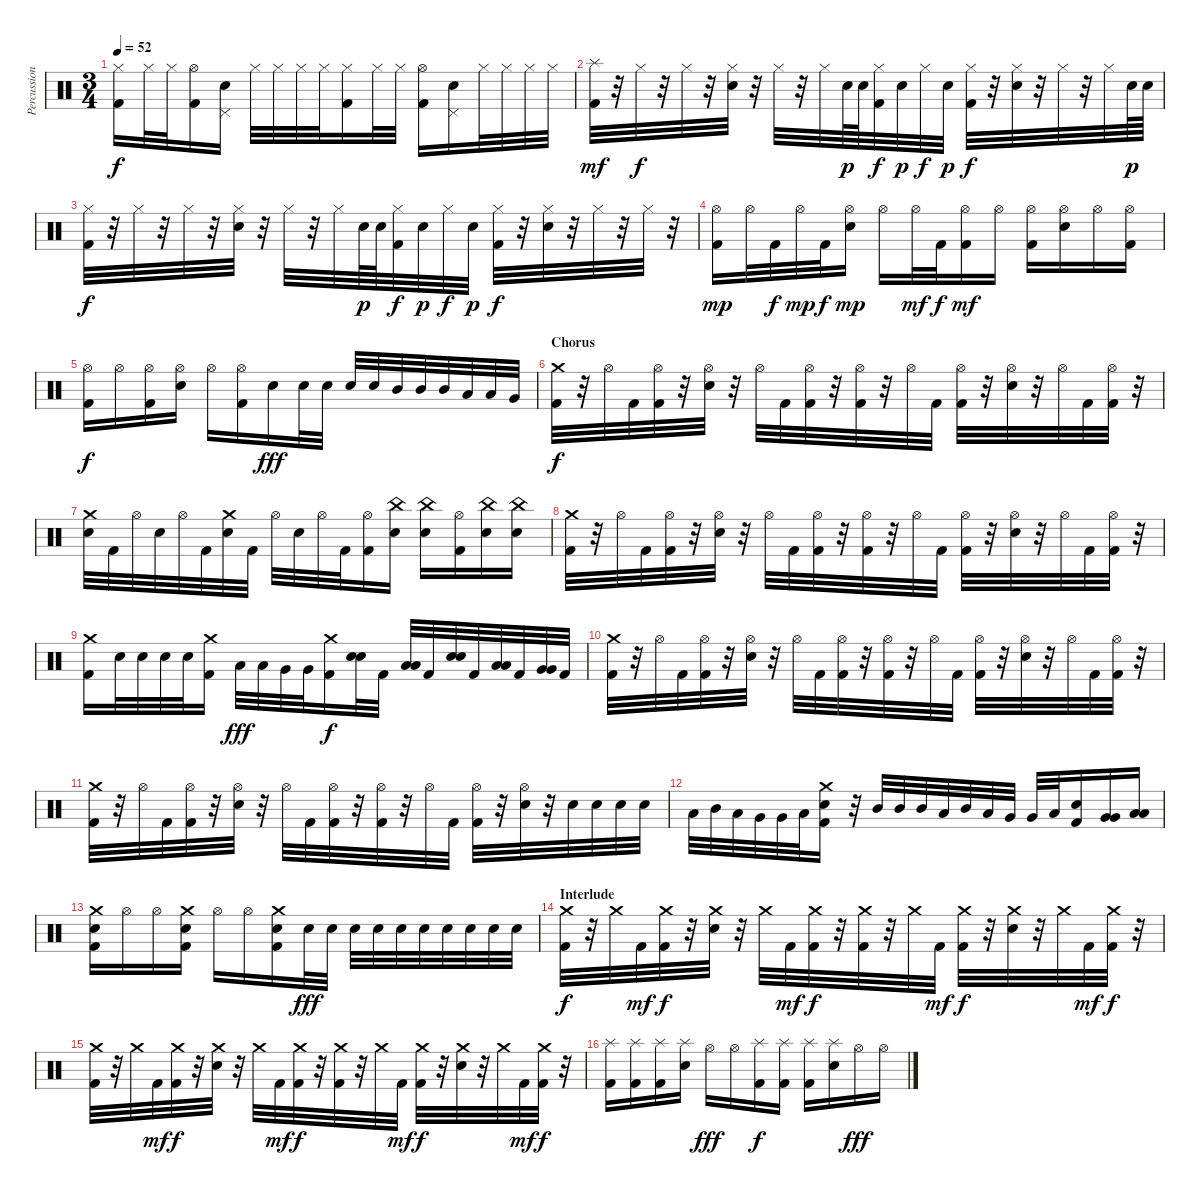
\track ("Percussion" "Percussion") {instrument percussion}
\staff {score}
\articulation defaults
\ts (3 4)
\tempo 52
\clef neutral
\ks c
("Hi-Hat (closed)" "Kick (hit) 2").16{dy f} "Hi-Hat (closed)".32 "Hi-Hat (closed)".32 ("Hi-Hat (open)" "Kick (hit) 2").16 ("Pedal Hi-Hat (hit)" "Snare (hit) 2").16 "Hi-Hat (closed)".32 "Hi-Hat (closed)".32 "Hi-Hat (closed)".32 "Hi-Hat (closed)".32 ("Hi-Hat (closed)" "Kick (hit) 2").16 "Hi-Hat (closed)".32 "Hi-Hat (closed)".32 ("Hi-Hat (open)" "Kick (hit) 2").16 ("Pedal Hi-Hat (hit)" "Snare (hit) 2").16 "Hi-Hat (closed)".32 "Hi-Hat (closed)".32 "Hi-Hat (closed)".32 "Hi-Hat (closed)".32 |
("Splash (hit)" "Kick (hit) 2").32{dy mf} r.32 "Hi-Hat (closed)".32{dy f} r.32 "Hi-Hat (closed)".32 r.32 ("Hi-Hat (closed)" "Snare (hit) 2").32 r.32 "Hi-Hat (closed)".32 r.32 "Hi-Hat (closed)".32 "Snare (hit) 2".64{dy p} "Snare (hit) 2".64 ("Hi-Hat (closed)" "Kick (hit) 2").32{dy f} "Snare (hit) 2".32{dy p} "Hi-Hat (closed)".32{dy f} "Snare (hit) 2".32{dy p} ("Hi-Hat (closed)" "Kick (hit) 2").32{dy f} r.32 ("Hi-Hat (closed)" "Snare (hit) 2").32 r.32 "Hi-Hat (closed)".32 r.32 "Hi-Hat (closed)".32 "Snare (hit) 2".64{dy p} "Snare (hit) 2".64 |
("Hi-Hat (closed)" "Kick (hit) 2").32{dy f} r.32 "Hi-Hat (closed)".32 r.32 "Hi-Hat (closed)".32 r.32 ("Hi-Hat (closed)" "Snare (hit) 2").32 r.32 "Hi-Hat (closed)".32 r.32 "Hi-Hat (closed)".32 "Snare (hit) 2".64{dy p} "Snare (hit) 2".64 ("Hi-Hat (closed)" "Kick (hit) 2").32{dy f} "Snare (hit) 2".32{dy p} "Hi-Hat (closed)".32{dy f} "Snare (hit) 2".32{dy p} ("Hi-Hat (closed)" "Kick (hit) 2").32{dy f} r.32 ("Hi-Hat (closed)" "Snare (hit) 2").32 r.32 "Hi-Hat (closed)".32 r.32 "Hi-Hat (closed)".32 r.32 |
("Hi-Hat (open)" "Kick (hit) 2").16{dy mp} "Hi-Hat (open)".32 "Kick (hit) 2".32{dy f} "Hi-Hat (open)".32{dy mp} "Kick (hit) 2".32{dy f} ("Hi-Hat (open)" "Snare (hit) 2").16{dy mp} "Hi-Hat (open)".16 "Hi-Hat (open)".32{dy mf} "Kick (hit) 2".32{dy f} ("Hi-Hat (open)" "Kick (hit) 2").16{dy mf} "Hi-Hat (open)".16 ("Hi-Hat (open)" "Kick (hit) 2").16 ("Hi-Hat (open)" "Snare (hit) 2").16 "Hi-Hat (open)".16 ("Hi-Hat (open)" "Kick (hit) 2").16 |
("Hi-Hat (open)" "Kick (hit) 2").16{dy f} "Hi-Hat (open)".16 ("Hi-Hat (open)" "Kick (hit) 2").16 ("Hi-Hat (open)" "Snare (hit) 2").16 "Hi-Hat (open)".16 ("Hi-Hat (open)" "Kick (hit) 2").16 "Snare (hit) 2".16{dy fff} "Snare (hit) 2".32 "Snare (hit) 2".32 "Snare (hit) 2".32 "Snare (hit) 2".32 "Mid Tom (hit)".32 "Mid Tom (hit)".32 "Mid Tom (hit)".32 "Low Tom (hit)".32 "Low Tom (hit)".32 "Very Low Tom (hit)".32 |
\section ("" "Chorus")
("Crash medium (hit)" "Kick (hit) 2").32{dy f} r.32 "Hi-Hat (open)".32 "Kick (hit) 2".32 ("Hi-Hat (open)" "Kick (hit) 2").32 r.32 ("Hi-Hat (open)" "Snare (hit) 2").32 r.32 "Hi-Hat (open)".32 "Kick (hit) 2".32 ("Hi-Hat (open)" "Kick (hit) 2").32 r.32 ("Hi-Hat (open)" "Kick (hit) 2").32 r.32 "Hi-Hat (open)".32 "Kick (hit) 2".32 ("Hi-Hat (open)" "Kick (hit) 2").32 r.32 ("Hi-Hat (open)" "Snare (hit) 2").32 r.32 "Hi-Hat (open)".32 "Kick (hit) 2".32 ("Hi-Hat (open)" "Kick (hit) 2").32 r.32 |
("Crash medium (hit)" "Snare (hit) 2").32 "Kick (hit) 2".32 "Hi-Hat (open)".32 "Snare (hit) 2".32 "Hi-Hat (open)".32 "Kick (hit) 2".32 ("Crash medium (hit)" "Snare (hit) 2").32 "Kick (hit) 2".32 "Hi-Hat (open)".32 "Snare (hit) 2".32 "Hi-Hat (open)".32 "Kick (hit) 2".32 ("Hi-Hat (open)" "Kick (hit) 2").16 ("China (hit)" "Snare (hit) 2").16 ("China (hit)" "Snare (hit) 2").16 ("Hi-Hat (open)" "Kick (hit) 2").16 ("China (hit)" "Snare (hit) 2").16 ("China (hit)" "Snare (hit) 2").16 |
("Crash medium (hit)" "Kick (hit) 2").32 r.32 "Hi-Hat (open)".32 "Kick (hit) 2".32 ("Hi-Hat (open)" "Kick (hit) 2").32 r.32 ("Hi-Hat (open)" "Snare (hit) 2").32 r.32 "Hi-Hat (open)".32 "Kick (hit) 2".32 ("Hi-Hat (open)" "Kick (hit) 2").32 r.32 ("Hi-Hat (open)" "Kick (hit) 2").32 r.32 "Hi-Hat (open)".32 "Kick (hit) 2".32 ("Hi-Hat (open)" "Kick (hit) 2").32 r.32 ("Hi-Hat (open)" "Snare (hit) 2").32 r.32 "Hi-Hat (open)".32 "Kick (hit) 2".32 ("Hi-Hat (open)" "Kick (hit) 2").32 r.32 |
("Crash medium (hit)" "Kick (hit) 2").16 "Snare (hit) 2".32 "Snare (hit) 2".32 "Snare (hit) 2".32 "Snare (hit) 2".32 ("Crash medium (hit)" "Kick (hit) 2").16 "Low Tom (hit)".32{dy fff} "Low Tom (hit)".32 "Very Low Tom (hit)".32 "Very Low Tom (hit)".32 ("Crash medium (hit)" "Kick (hit) 2").16{dy f} ("Snare (hit) 2" "Snare (hit) 2").32 "Kick (hit) 2".32 ("Low Tom (hit)" "Low Tom (hit)").32 "Kick (hit) 2".32 ("Snare (hit) 2" "Snare (hit) 2").32 "Kick (hit) 2".32 ("Low Tom (hit)" "Low Tom (hit)").32 "Kick (hit) 2".32 ("Very Low Tom (hit)" "Very Low Tom (hit)").32 "Kick (hit) 2".32 |
("Crash medium (hit)" "Kick (hit) 2").32 r.32 "Hi-Hat (open)".32 "Kick (hit) 2".32 ("Hi-Hat (open)" "Kick (hit) 2").32 r.32 ("Hi-Hat (open)" "Snare (hit) 2").32 r.32 "Hi-Hat (open)".32 "Kick (hit) 2".32 ("Hi-Hat (open)" "Kick (hit) 2").32 r.32 ("Hi-Hat (open)" "Kick (hit) 2").32 r.32 "Hi-Hat (open)".32 "Kick (hit) 2".32 ("Hi-Hat (open)" "Kick (hit) 2").32 r.32 ("Hi-Hat (open)" "Snare (hit) 2").32 r.32 "Hi-Hat (open)".32 "Kick (hit) 2".32 ("Hi-Hat (open)" "Kick (hit) 2").32 r.32 |
("Crash medium (hit)" "Kick (hit) 2").32 r.32 "Hi-Hat (open)".32 "Kick (hit) 2".32 ("Hi-Hat (open)" "Kick (hit) 2").32 r.32 ("Hi-Hat (open)" "Snare (hit) 2").32 r.32 "Hi-Hat (open)".32 "Kick (hit) 2".32 ("Hi-Hat (open)" "Kick (hit) 2").32 r.32 ("Hi-Hat (open)" "Kick (hit) 2").32 r.32 "Hi-Hat (open)".32 "Kick (hit) 2".32 ("Hi-Hat (open)" "Kick (hit) 2").32 r.32 ("Hi-Hat (open)" "Snare (hit) 2").32 r.32 "Snare (hit) 2".32 "Snare (hit) 2".32 "Snare (hit) 2".32 "Snare (hit) 2".32 |
"Low Tom (hit)".32 "Mid Tom (hit)".32 "Low Tom (hit)".32 "Very Low Tom (hit)".32 "Very Low Tom (hit)".32 "Low Floor Tom (hit)".32 ("Crash medium (hit)" "Snare (hit) 2" "Kick (hit) 2").16 r.32 "Mid Tom (hit)".32 "Mid Tom (hit)".32 "Mid Tom (hit)".32 "Low Tom (hit)".32 "Mid Tom (hit)".32 "Low Tom (hit)".32 "Very Low Tom (hit)".32 "Very Low Tom (hit)".32 "Low Floor Tom (hit)".32 ("Snare (hit) 2" "Kick (hit) 2").16 ("Very Low Tom (hit)" "Very Low Tom (hit)").16 ("Low Tom (hit)" "Low Tom (hit)").16 |
("Crash medium (hit)" "Snare (hit) 2" "Kick (hit) 2").16 "Hi-Hat (open)".16 "Hi-Hat (open)".16 ("Crash medium (hit)" "Snare (hit) 2" "Kick (hit) 2").16 "Hi-Hat (open)".16 "Hi-Hat (open)".16 ("Crash medium (hit)" "Snare (hit) 2" "Kick (hit) 2").16 "Snare (hit) 2".32{dy fff} "Snare (hit) 2".32 "Snare (hit) 2".32 "Snare (hit) 2".32 "Snare (hit) 2".32 "Snare (hit) 2".32 "Snare (hit) 2".32 "Snare (hit) 2".32 "Snare (hit) 2".32 "Snare (hit) 2".32 |
\section ("" "Interlude")
("Crash medium (hit)" "Kick (hit) 2").32{dy f} r.32 "Crash medium (hit)".32 "Kick (hit) 2".32{dy mf} ("Crash medium (hit)" "Kick (hit) 2").32{dy f} r.32 ("Crash medium (hit)" "Snare (hit) 2").32 r.32 "Crash medium (hit)".32 "Kick (hit) 2".32{dy mf} ("Crash medium (hit)" "Kick (hit) 2").32{dy f} r.32 ("Crash medium (hit)" "Kick (hit) 2").32 r.32 "Crash medium (hit)".32 "Kick (hit) 2".32{dy mf} ("Crash medium (hit)" "Kick (hit) 2").32{dy f} r.32 ("Crash medium (hit)" "Snare (hit) 2").32 r.32 "Crash medium (hit)".32 "Kick (hit) 2".32{dy mf} ("Crash medium (hit)" "Kick (hit) 2").32{dy f} r.32 |
("Crash medium (hit)" "Kick (hit) 2").32 r.32 "Crash medium (hit)".32 "Kick (hit) 2".32{dy mf} ("Crash medium (hit)" "Kick (hit) 2").32{dy f} r.32 ("Crash medium (hit)" "Snare (hit) 2").32 r.32 "Crash medium (hit)".32 "Kick (hit) 2".32{dy mf} ("Crash medium (hit)" "Kick (hit) 2").32{dy f} r.32 ("Crash medium (hit)" "Kick (hit) 2").32 r.32 "Crash medium (hit)".32 "Kick (hit) 2".32{dy mf} ("Crash medium (hit)" "Kick (hit) 2").32{dy f} r.32 ("Crash medium (hit)" "Snare (hit) 2").32 r.32 "Crash medium (hit)".32 "Kick (hit) 2".32{dy mf} ("Crash medium (hit)" "Kick (hit) 2").32{dy f} r.32 |
("Splash (hit)" "Kick (hit) 2").16 ("Splash (hit)" "Kick (hit) 2").16 ("Splash (hit)" "Kick (hit) 2").16 ("Splash (hit)" "Snare (hit) 2").16 "Hi-Hat (open)".16{dy fff} "Hi-Hat (open)".16 ("Splash (hit)" "Kick (hit) 2").16{dy f} ("Splash (hit)" "Kick (hit) 2").16 ("Splash (hit)" "Kick (hit) 2").16 ("Splash (hit)" "Snare (hit) 2").16 "Hi-Hat (open)".16{dy fff} "Hi-Hat (open)".16
